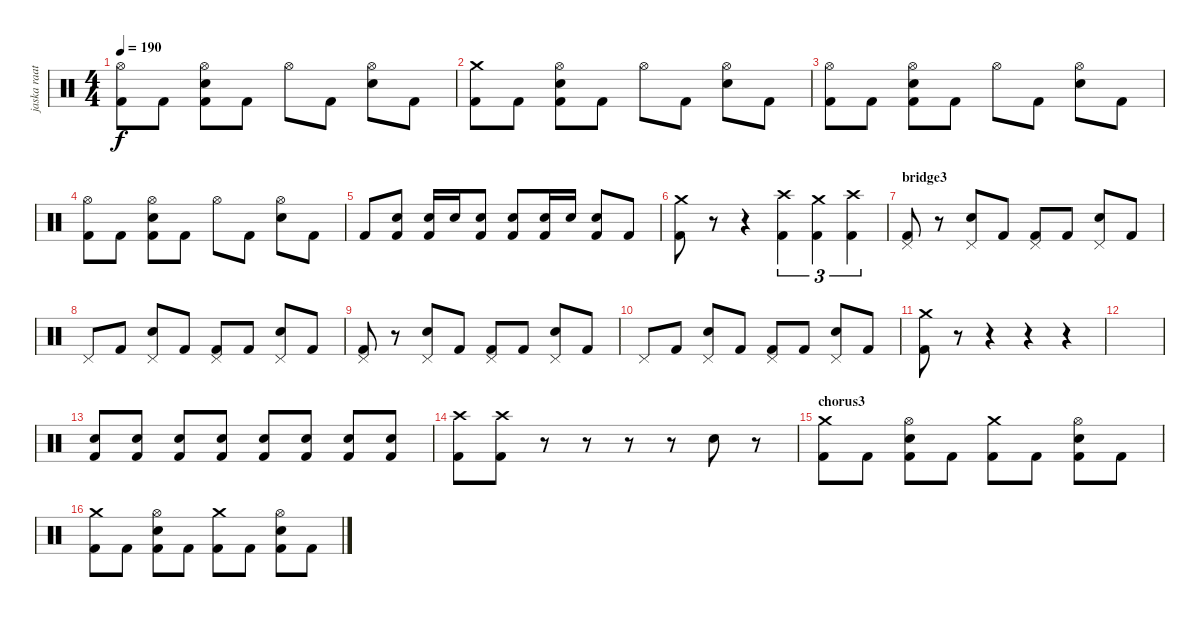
\track ("jaska raatikainen" "jaska raat") {instrument percussion}
\staff {score}
\articulation defaults
\ts (4 4)
\tempo 190
\clef neutral
\ks c
("Hi-Hat (open)" "Kick (hit) 2").8{dy f} "Kick (hit) 2".8 ("Hi-Hat (open)" "Snare (hit) 2" "Kick (hit) 2").8 "Kick (hit) 2".8 "Hi-Hat (open)".8 "Kick (hit) 2".8 ("Hi-Hat (open)" "Snare (hit) 2").8 "Kick (hit) 2".8 |
("Crash medium (hit)" "Kick (hit) 2").8 "Kick (hit) 2".8 ("Hi-Hat (open)" "Snare (hit) 2" "Kick (hit) 2").8 "Kick (hit) 2".8 "Hi-Hat (open)".8 "Kick (hit) 2".8 ("Hi-Hat (open)" "Snare (hit) 2").8 "Kick (hit) 2".8 |
("Hi-Hat (open)" "Kick (hit) 2").8 "Kick (hit) 2".8 ("Hi-Hat (open)" "Snare (hit) 2" "Kick (hit) 2").8 "Kick (hit) 2".8 "Hi-Hat (open)".8 "Kick (hit) 2".8 ("Hi-Hat (open)" "Snare (hit) 2").8 "Kick (hit) 2".8 |
("Hi-Hat (open)" "Kick (hit) 2").8 "Kick (hit) 2".8 ("Hi-Hat (open)" "Snare (hit) 2" "Kick (hit) 2").8 "Kick (hit) 2".8 "Hi-Hat (open)".8 "Kick (hit) 2".8 ("Hi-Hat (open)" "Snare (hit) 2").8 "Kick (hit) 2".8 |
"Kick (hit) 2".8 ("Snare (hit) 2" "Kick (hit) 2").8 ("Snare (hit) 2" "Kick (hit) 2").16 "Snare (hit) 2".16 ("Snare (hit) 2" "Kick (hit) 2").8 ("Snare (hit) 2" "Kick (hit) 2").8 ("Snare (hit) 2" "Kick (hit) 2").16 "Snare (hit) 2".16 ("Snare (hit) 2" "Kick (hit) 2").8 "Kick (hit) 2".8 |
("Crash medium (hit)" "Kick (hit) 2").8 r.8 r.4 ("Crash high (hit)" "Kick (hit) 2").4{tu (3 2)} ("Crash medium (hit)" "Kick (hit) 2").4{tu (3 2)} ("Crash high (hit)" "Kick (hit) 2").4{tu (3 2)} |
\section ("" "bridge3")
("Pedal Hi-Hat (hit)" "Kick (hit) 2").8 r.8 ("Pedal Hi-Hat (hit)" "Snare (hit) 2").8 "Kick (hit) 2".8 ("Pedal Hi-Hat (hit)" "Kick (hit) 2").8 "Kick (hit) 2".8 ("Pedal Hi-Hat (hit)" "Snare (hit) 2").8 "Kick (hit) 2".8 |
"Pedal Hi-Hat (hit)".8 "Kick (hit) 2".8 ("Pedal Hi-Hat (hit)" "Snare (hit) 2").8 "Kick (hit) 2".8 ("Pedal Hi-Hat (hit)" "Kick (hit) 2").8 "Kick (hit) 2".8 ("Pedal Hi-Hat (hit)" "Snare (hit) 2").8 "Kick (hit) 2".8 |
("Pedal Hi-Hat (hit)" "Kick (hit) 2").8 r.8 ("Pedal Hi-Hat (hit)" "Snare (hit) 2").8 "Kick (hit) 2".8 ("Pedal Hi-Hat (hit)" "Kick (hit) 2").8 "Kick (hit) 2".8 ("Pedal Hi-Hat (hit)" "Snare (hit) 2").8 "Kick (hit) 2".8 |
"Pedal Hi-Hat (hit)".8 "Kick (hit) 2".8 ("Pedal Hi-Hat (hit)" "Snare (hit) 2").8 "Kick (hit) 2".8 ("Pedal Hi-Hat (hit)" "Kick (hit) 2").8 "Kick (hit) 2".8 ("Pedal Hi-Hat (hit)" "Snare (hit) 2").8 "Kick (hit) 2".8 |
("Crash medium (hit)" "Kick (hit) 2").8 r.8 r.4 r.4 r.4 |
|
("Snare (hit) 2" "Kick (hit) 2").8 ("Snare (hit) 2" "Kick (hit) 2").8 ("Snare (hit) 2" "Kick (hit) 2").8 ("Snare (hit) 2" "Kick (hit) 2").8 ("Snare (hit) 2" "Kick (hit) 2").8 ("Snare (hit) 2" "Kick (hit) 2").8 ("Snare (hit) 2" "Kick (hit) 2").8 ("Snare (hit) 2" "Kick (hit) 2").8 |
("Crash high (hit)" "Kick (hit) 2").8 ("Crash high (hit)" "Kick (hit) 2").8 r.8 r.8 r.8 r.8 "Snare (hit) 2".8 r.8 |
\section ("" "chorus3")
("Crash medium (hit)" "Kick (hit) 2").8 "Kick (hit) 2".8 ("Hi-Hat (open)" "Snare (hit) 2" "Kick (hit) 2").8 "Kick (hit) 2".8 ("Crash medium (hit)" "Kick (hit) 2").8 "Kick (hit) 2".8 ("Hi-Hat (open)" "Snare (hit) 2" "Kick (hit) 2").8 "Kick (hit) 2".8 |
("Crash medium (hit)" "Kick (hit) 2").8 "Kick (hit) 2".8 ("Hi-Hat (open)" "Snare (hit) 2" "Kick (hit) 2").8 "Kick (hit) 2".8 ("Crash medium (hit)" "Kick (hit) 2").8 "Kick (hit) 2".8 ("Hi-Hat (open)" "Snare (hit) 2" "Kick (hit) 2").8 "Kick (hit) 2".8
